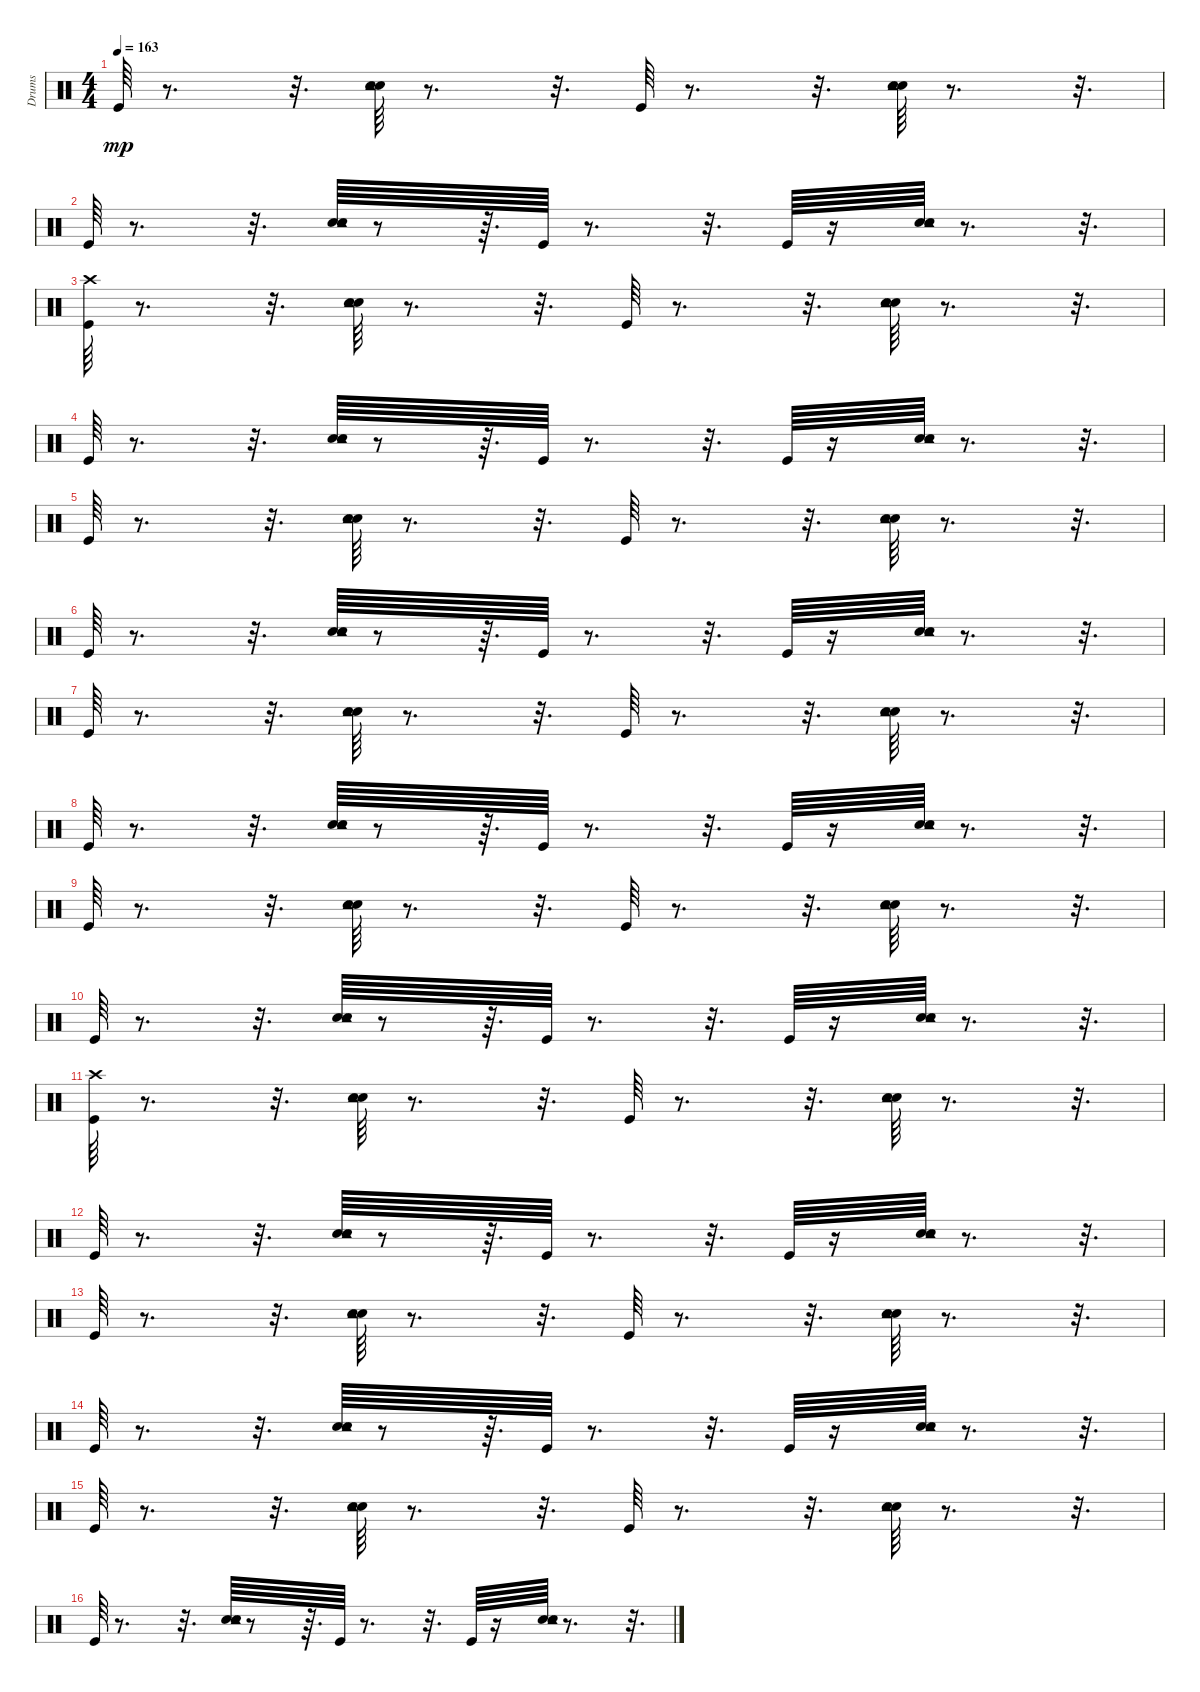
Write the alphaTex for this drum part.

\track ("Drums" "Drums") {instrument percussion}
\staff {score}
\articulation defaults
\ts (4 4)
\tempo 163
\clef neutral
\ks c "Kick (hit)".64{dy mp}
r.8{d} r.32{d} ("Snare (hit) 2" "Tambourine (hit)" "Hand Clap (hit)").64 r.8{d} r.32{d} "Kick (hit)".64 r.8{d} r.32{d} ("Snare (hit) 2" "Tambourine (hit)" "Hand Clap (hit)").64 r.8{d} r.32{d} |
"Kick (hit)".64 r.8{d} r.32{d} ("Snare (hit) 2" "Tambourine (hit)" "Hand Clap (hit)").64 r.8 r.64{d} "Kick (hit)".64 r.8{d} r.32{d} "Kick (hit)".64 r.16 ("Snare (hit) 2" "Tambourine (hit)" "Hand Clap (hit)").64 r.8{d} r.32{d} |
("Kick (hit)" "Crash high (hit)").64 r.8{d} r.32{d} ("Snare (hit) 2" "Tambourine (hit)" "Hand Clap (hit)").64 r.8{d} r.32{d} "Kick (hit)".64 r.8{d} r.32{d} ("Snare (hit) 2" "Tambourine (hit)" "Hand Clap (hit)").64 r.8{d} r.32{d} |
"Kick (hit)".64 r.8{d} r.32{d} ("Snare (hit) 2" "Tambourine (hit)" "Hand Clap (hit)").64 r.8 r.64{d} "Kick (hit)".64 r.8{d} r.32{d} "Kick (hit)".64 r.16 ("Snare (hit) 2" "Tambourine (hit)" "Hand Clap (hit)").64 r.8{d} r.32{d} |
"Kick (hit)".64 r.8{d} r.32{d} ("Snare (hit) 2" "Tambourine (hit)" "Hand Clap (hit)").64 r.8{d} r.32{d} "Kick (hit)".64 r.8{d} r.32{d} ("Snare (hit) 2" "Tambourine (hit)" "Hand Clap (hit)").64 r.8{d} r.32{d} |
"Kick (hit)".64 r.8{d} r.32{d} ("Snare (hit) 2" "Tambourine (hit)" "Hand Clap (hit)").64 r.8 r.64{d} "Kick (hit)".64 r.8{d} r.32{d} "Kick (hit)".64 r.16 ("Snare (hit) 2" "Tambourine (hit)" "Hand Clap (hit)").64 r.8{d} r.32{d} |
"Kick (hit)".64 r.8{d} r.32{d} ("Snare (hit) 2" "Tambourine (hit)" "Hand Clap (hit)").64 r.8{d} r.32{d} "Kick (hit)".64 r.8{d} r.32{d} ("Snare (hit) 2" "Tambourine (hit)" "Hand Clap (hit)").64 r.8{d} r.32{d} |
"Kick (hit)".64 r.8{d} r.32{d} ("Snare (hit) 2" "Tambourine (hit)" "Hand Clap (hit)").64 r.8 r.64{d} "Kick (hit)".64 r.8{d} r.32{d} "Kick (hit)".64 r.16 ("Snare (hit) 2" "Tambourine (hit)" "Hand Clap (hit)").64 r.8{d} r.32{d} |
"Kick (hit)".64 r.8{d} r.32{d} ("Snare (hit) 2" "Tambourine (hit)" "Hand Clap (hit)").64 r.8{d} r.32{d} "Kick (hit)".64 r.8{d} r.32{d} ("Snare (hit) 2" "Tambourine (hit)" "Hand Clap (hit)").64 r.8{d} r.32{d} |
"Kick (hit)".64 r.8{d} r.32{d} ("Snare (hit) 2" "Tambourine (hit)" "Hand Clap (hit)").64 r.8 r.64{d} "Kick (hit)".64 r.8{d} r.32{d} "Kick (hit)".64 r.16 ("Snare (hit) 2" "Tambourine (hit)" "Hand Clap (hit)").64 r.8{d} r.32{d} |
("Kick (hit)" "Crash high (hit)").64 r.8{d} r.32{d} ("Snare (hit) 2" "Tambourine (hit)" "Hand Clap (hit)").64 r.8{d} r.32{d} "Kick (hit)".64 r.8{d} r.32{d} ("Snare (hit) 2" "Tambourine (hit)" "Hand Clap (hit)").64 r.8{d} r.32{d} |
"Kick (hit)".64 r.8{d} r.32{d} ("Snare (hit) 2" "Tambourine (hit)" "Hand Clap (hit)").64 r.8 r.64{d} "Kick (hit)".64 r.8{d} r.32{d} "Kick (hit)".64 r.16 ("Snare (hit) 2" "Tambourine (hit)" "Hand Clap (hit)").64 r.8{d} r.32{d} |
"Kick (hit)".64 r.8{d} r.32{d} ("Snare (hit) 2" "Tambourine (hit)" "Hand Clap (hit)").64 r.8{d} r.32{d} "Kick (hit)".64 r.8{d} r.32{d} ("Snare (hit) 2" "Tambourine (hit)" "Hand Clap (hit)").64 r.8{d} r.32{d} |
"Kick (hit)".64 r.8{d} r.32{d} ("Snare (hit) 2" "Tambourine (hit)" "Hand Clap (hit)").64 r.8 r.64{d} "Kick (hit)".64 r.8{d} r.32{d} "Kick (hit)".64 r.16 ("Snare (hit) 2" "Tambourine (hit)" "Hand Clap (hit)").64 r.8{d} r.32{d} |
"Kick (hit)".64 r.8{d} r.32{d} ("Snare (hit) 2" "Tambourine (hit)" "Hand Clap (hit)").64 r.8{d} r.32{d} "Kick (hit)".64 r.8{d} r.32{d} ("Snare (hit) 2" "Tambourine (hit)" "Hand Clap (hit)").64 r.8{d} r.32{d} |
"Kick (hit)".64 r.8{d} r.32{d} ("Snare (hit) 2" "Tambourine (hit)" "Hand Clap (hit)").64 r.8 r.64{d} "Kick (hit)".64 r.8{d} r.32{d} "Kick (hit)".64 r.16 ("Snare (hit) 2" "Tambourine (hit)" "Hand Clap (hit)").64 r.8{d} r.32{d}
